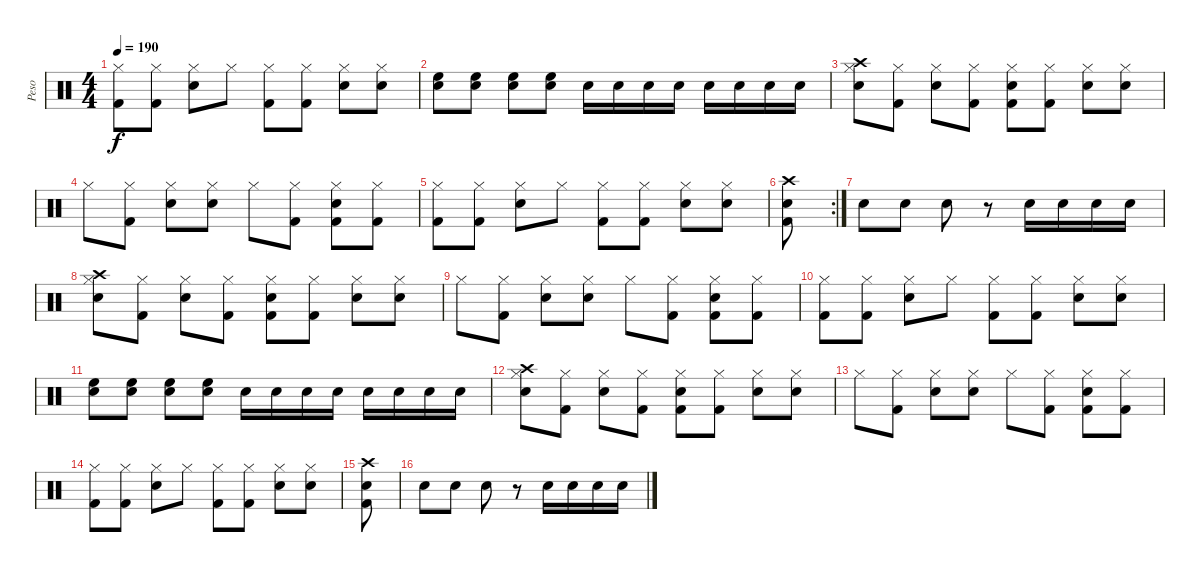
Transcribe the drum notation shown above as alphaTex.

\track ("Peso" "Peso") {instrument percussion}
\staff {score}
\articulation defaults
\ts (4 4)
\tempo 190
\clef neutral
\ks c
("Hi-Hat (closed)" "Kick (hit) 2").8{dy f} ("Hi-Hat (closed)" "Kick (hit) 2").8 ("Hi-Hat (closed)" "Snare (hit) 2").8 "Hi-Hat (closed)".8 ("Hi-Hat (closed)" "Kick (hit) 2").8 ("Hi-Hat (closed)" "Kick (hit) 2").8 ("Hi-Hat (closed)" "Snare (hit) 2").8 ("Hi-Hat (closed)" "Snare (hit) 2").8 |
("High Floor Tom (hit)" "Snare (hit) 2").8 ("High Floor Tom (hit)" "Snare (hit) 2").8 ("High Floor Tom (hit)" "Snare (hit) 2").8 ("High Floor Tom (hit)" "Snare (hit) 2").8 "Snare (hit) 2".16 "Snare (hit) 2".16 "Snare (hit) 2".16 "Snare (hit) 2".16 "Snare (hit) 2".16 "Snare (hit) 2".16 "Snare (hit) 2".16 "Snare (hit) 2".16 |
("Crash high (hit)" "Hi-Hat (closed)" "Snare (hit) 2").8 ("Hi-Hat (closed)" "Kick (hit) 2").8 ("Hi-Hat (closed)" "Snare (hit) 2").8 ("Hi-Hat (closed)" "Kick (hit) 2").8 ("Hi-Hat (closed)" "Snare (hit) 2" "Kick (hit) 2").8 ("Hi-Hat (closed)" "Kick (hit) 2").8 ("Hi-Hat (closed)" "Snare (hit) 2").8 ("Hi-Hat (closed)" "Snare (hit) 2").8 |
"Hi-Hat (closed)".8 ("Hi-Hat (closed)" "Kick (hit) 2").8 ("Hi-Hat (closed)" "Snare (hit) 2").8 ("Hi-Hat (closed)" "Snare (hit) 2").8 "Hi-Hat (closed)".8 ("Hi-Hat (closed)" "Kick (hit) 2").8 ("Hi-Hat (closed)" "Snare (hit) 2" "Kick (hit) 2").8 ("Hi-Hat (closed)" "Kick (hit) 2").8 |
("Hi-Hat (closed)" "Kick (hit) 2").8 ("Hi-Hat (closed)" "Kick (hit) 2").8 ("Hi-Hat (closed)" "Snare (hit) 2").8 "Hi-Hat (closed)".8 ("Hi-Hat (closed)" "Kick (hit) 2").8 ("Hi-Hat (closed)" "Kick (hit) 2").8 ("Hi-Hat (closed)" "Snare (hit) 2").8 ("Hi-Hat (closed)" "Snare (hit) 2").8 |
\rc 2
("Crash high (hit)" "Snare (hit) 2" "Kick (hit) 2").8 |
"Snare (hit) 2".8 "Snare (hit) 2".8 "Snare (hit) 2".8 r.8 "Snare (hit) 2".16 "Snare (hit) 2".16 "Snare (hit) 2".16 "Snare (hit) 2".16 |
("Crash high (hit)" "Hi-Hat (closed)" "Snare (hit) 2").8 ("Hi-Hat (closed)" "Kick (hit) 2").8 ("Hi-Hat (closed)" "Snare (hit) 2").8 ("Hi-Hat (closed)" "Kick (hit) 2").8 ("Hi-Hat (closed)" "Snare (hit) 2" "Kick (hit) 2").8 ("Hi-Hat (closed)" "Kick (hit) 2").8 ("Hi-Hat (closed)" "Snare (hit) 2").8 ("Hi-Hat (closed)" "Snare (hit) 2").8 |
"Hi-Hat (closed)".8 ("Hi-Hat (closed)" "Kick (hit) 2").8 ("Hi-Hat (closed)" "Snare (hit) 2").8 ("Hi-Hat (closed)" "Snare (hit) 2").8 "Hi-Hat (closed)".8 ("Hi-Hat (closed)" "Kick (hit) 2").8 ("Hi-Hat (closed)" "Snare (hit) 2" "Kick (hit) 2").8 ("Hi-Hat (closed)" "Kick (hit) 2").8 |
("Hi-Hat (closed)" "Kick (hit) 2").8 ("Hi-Hat (closed)" "Kick (hit) 2").8 ("Hi-Hat (closed)" "Snare (hit) 2").8 "Hi-Hat (closed)".8 ("Hi-Hat (closed)" "Kick (hit) 2").8 ("Hi-Hat (closed)" "Kick (hit) 2").8 ("Hi-Hat (closed)" "Snare (hit) 2").8 ("Hi-Hat (closed)" "Snare (hit) 2").8 |
("High Floor Tom (hit)" "Snare (hit) 2").8 ("High Floor Tom (hit)" "Snare (hit) 2").8 ("High Floor Tom (hit)" "Snare (hit) 2").8 ("High Floor Tom (hit)" "Snare (hit) 2").8 "Snare (hit) 2".16 "Snare (hit) 2".16 "Snare (hit) 2".16 "Snare (hit) 2".16 "Snare (hit) 2".16 "Snare (hit) 2".16 "Snare (hit) 2".16 "Snare (hit) 2".16 |
("Crash high (hit)" "Hi-Hat (closed)" "Snare (hit) 2").8 ("Hi-Hat (closed)" "Kick (hit) 2").8 ("Hi-Hat (closed)" "Snare (hit) 2").8 ("Hi-Hat (closed)" "Kick (hit) 2").8 ("Hi-Hat (closed)" "Snare (hit) 2" "Kick (hit) 2").8 ("Hi-Hat (closed)" "Kick (hit) 2").8 ("Hi-Hat (closed)" "Snare (hit) 2").8 ("Hi-Hat (closed)" "Snare (hit) 2").8 |
"Hi-Hat (closed)".8 ("Hi-Hat (closed)" "Kick (hit) 2").8 ("Hi-Hat (closed)" "Snare (hit) 2").8 ("Hi-Hat (closed)" "Snare (hit) 2").8 "Hi-Hat (closed)".8 ("Hi-Hat (closed)" "Kick (hit) 2").8 ("Hi-Hat (closed)" "Snare (hit) 2" "Kick (hit) 2").8 ("Hi-Hat (closed)" "Kick (hit) 2").8 |
("Hi-Hat (closed)" "Kick (hit) 2").8 ("Hi-Hat (closed)" "Kick (hit) 2").8 ("Hi-Hat (closed)" "Snare (hit) 2").8 "Hi-Hat (closed)".8 ("Hi-Hat (closed)" "Kick (hit) 2").8 ("Hi-Hat (closed)" "Kick (hit) 2").8 ("Hi-Hat (closed)" "Snare (hit) 2").8 ("Hi-Hat (closed)" "Snare (hit) 2").8 |
("Crash high (hit)" "Snare (hit) 2" "Kick (hit) 2").8 |
"Snare (hit) 2".8 "Snare (hit) 2".8 "Snare (hit) 2".8 r.8 "Snare (hit) 2".16 "Snare (hit) 2".16 "Snare (hit) 2".16 "Snare (hit) 2".16
